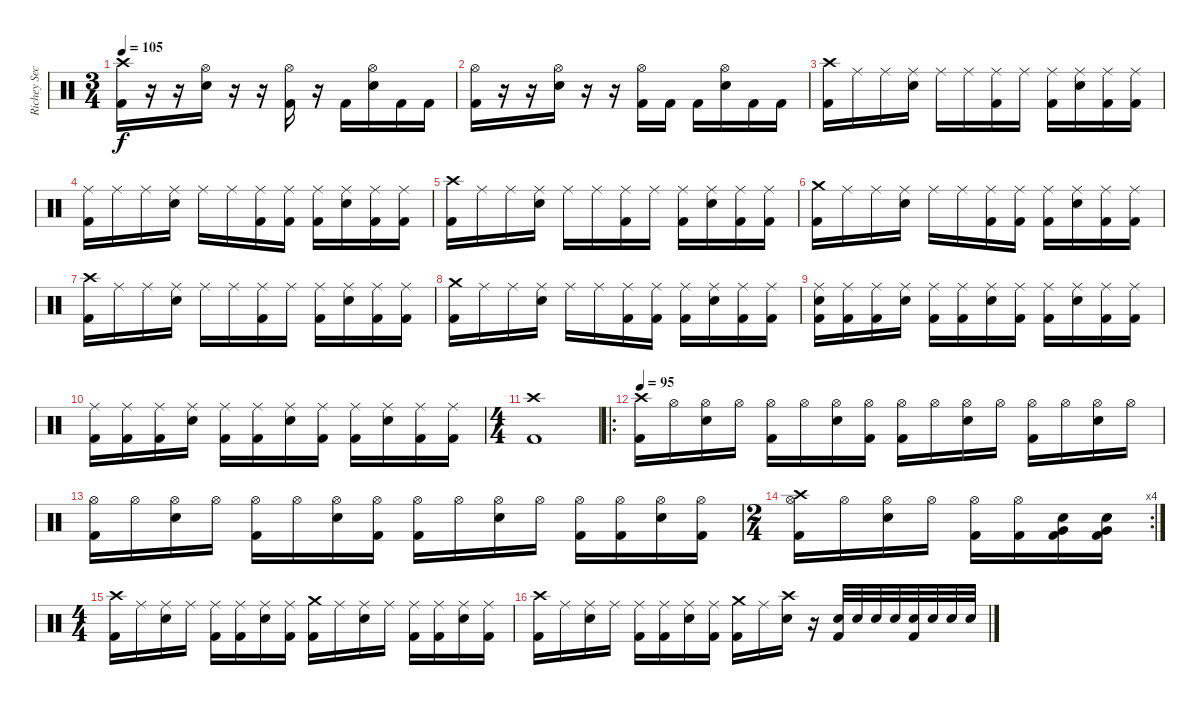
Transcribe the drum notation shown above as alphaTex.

\track ("Richey Secchiri" "Richey Sec") {instrument percussion}
\staff {score}
\articulation defaults
\ts (3 4)
\tempo 105
\clef neutral
\ks c
("Crash high (hit)" "Kick (hit) 2").16{dy f} r.16 r.16 ("Hi-Hat (open)" "Snare (hit) 2").16 r.16 r.16 ("Hi-Hat (open)" "Kick (hit) 2").16 r.16 "Kick (hit) 2".16 ("Hi-Hat (open)" "Snare (hit) 2").16 "Kick (hit) 2".16 "Kick (hit) 2".16 |
("Hi-Hat (open)" "Kick (hit) 2").16 r.16 r.16 ("Hi-Hat (open)" "Snare (hit) 2").16 r.16 r.16 ("Hi-Hat (open)" "Kick (hit) 2").16 "Kick (hit) 2".16 "Kick (hit) 2".16 ("Hi-Hat (open)" "Snare (hit) 2").16 "Kick (hit) 2".16 "Kick (hit) 2".16 |
("Crash high (hit)" "Kick (hit) 2").16 "Ride (middle)".16 "Ride (middle)".16 ("Ride (middle)" "Snare (hit) 2").16 "Ride (middle)".16 "Ride (middle)".16 ("Ride (middle)" "Kick (hit) 2").16 "Ride (middle)".16 ("Ride (middle)" "Kick (hit) 2").16 ("Ride (middle)" "Snare (hit) 2").16 ("Ride (middle)" "Kick (hit) 2").16 ("Ride (middle)" "Kick (hit) 2").16 |
("Ride (middle)" "Kick (hit) 2").16 "Ride (middle)".16 "Ride (middle)".16 ("Ride (middle)" "Snare (hit) 2").16 "Ride (middle)".16 "Ride (middle)".16 ("Ride (middle)" "Kick (hit) 2").16 ("Ride (middle)" "Kick (hit) 2").16 ("Ride (middle)" "Kick (hit) 2").16 ("Ride (middle)" "Snare (hit) 2").16 ("Ride (middle)" "Kick (hit) 2").16 ("Ride (middle)" "Kick (hit) 2").16 |
("Crash high (hit)" "Kick (hit) 2").16 "Ride (middle)".16 "Ride (middle)".16 ("Ride (middle)" "Snare (hit) 2").16 "Ride (middle)".16 "Ride (middle)".16 ("Ride (middle)" "Kick (hit) 2").16 "Ride (middle)".16 ("Ride (middle)" "Kick (hit) 2").16 ("Ride (middle)" "Snare (hit) 2").16 ("Ride (middle)" "Kick (hit) 2").16 ("Ride (middle)" "Kick (hit) 2").16 |
("Crash medium (hit)" "Kick (hit) 2").16 "Ride (middle)".16 "Ride (middle)".16 ("Ride (middle)" "Snare (hit) 2").16 "Ride (middle)".16 "Ride (middle)".16 ("Ride (middle)" "Kick (hit) 2").16 ("Ride (middle)" "Kick (hit) 2").16 ("Ride (middle)" "Kick (hit) 2").16 ("Ride (middle)" "Snare (hit) 2").16 ("Ride (middle)" "Kick (hit) 2").16 ("Ride (middle)" "Kick (hit) 2").16 |
("Crash high (hit)" "Kick (hit) 2").16 "Ride (middle)".16 "Ride (middle)".16 ("Ride (middle)" "Snare (hit) 2").16 "Ride (middle)".16 "Ride (middle)".16 ("Ride (middle)" "Kick (hit) 2").16 "Ride (middle)".16 ("Ride (middle)" "Kick (hit) 2").16 ("Ride (middle)" "Snare (hit) 2").16 ("Ride (middle)" "Kick (hit) 2").16 ("Ride (middle)" "Kick (hit) 2").16 |
("Crash medium (hit)" "Kick (hit) 2").16 "Ride (middle)".16 "Ride (middle)".16 ("Ride (middle)" "Snare (hit) 2").16 "Ride (middle)".16 "Ride (middle)".16 ("Ride (middle)" "Kick (hit) 2").16 ("Ride (middle)" "Kick (hit) 2").16 ("Ride (middle)" "Kick (hit) 2").16 ("Ride (middle)" "Snare (hit) 2").16 ("Ride (middle)" "Kick (hit) 2").16 ("Ride (middle)" "Kick (hit) 2").16 |
("Ride (middle)" "Snare (hit) 2" "Kick (hit) 2").16 ("Ride (middle)" "Kick (hit) 2").16 ("Ride (middle)" "Kick (hit) 2").16 ("Ride (middle)" "Snare (hit) 2").16 ("Ride (middle)" "Kick (hit) 2").16 ("Ride (middle)" "Kick (hit) 2").16 ("Ride (middle)" "Snare (hit) 2").16 ("Ride (middle)" "Kick (hit) 2").16 ("Ride (middle)" "Kick (hit) 2").16 ("Ride (middle)" "Snare (hit) 2").16 ("Ride (middle)" "Kick (hit) 2").16 ("Ride (middle)" "Kick (hit) 2").16 |
("Ride (middle)" "Kick (hit) 2").16 ("Ride (middle)" "Kick (hit) 2").16 ("Ride (middle)" "Kick (hit) 2").16 ("Ride (middle)" "Snare (hit) 2").16 ("Ride (middle)" "Kick (hit) 2").16 ("Ride (middle)" "Kick (hit) 2").16 ("Ride (middle)" "Snare (hit) 2").16 ("Ride (middle)" "Kick (hit) 2").16 ("Ride (middle)" "Kick (hit) 2").16 ("Ride (middle)" "Snare (hit) 2").16 ("Ride (middle)" "Kick (hit) 2").16 ("Ride (middle)" "Kick (hit) 2").16 |
\ts (4 4)
("Crash high (hit)" "Kick (hit) 2").1 |
\ro
\tempo 95
("Crash high (hit)" "Kick (hit) 2").16 "Hi-Hat (open)".16 ("Hi-Hat (open)" "Snare (hit) 2").16 "Hi-Hat (open)".16 ("Hi-Hat (open)" "Kick (hit) 2").16 "Hi-Hat (open)".16 ("Hi-Hat (open)" "Snare (hit) 2").16 ("Hi-Hat (open)" "Kick (hit) 2").16 ("Hi-Hat (open)" "Kick (hit) 2").16 "Hi-Hat (open)".16 ("Hi-Hat (open)" "Snare (hit) 2").16 "Hi-Hat (open)".16 ("Hi-Hat (open)" "Kick (hit) 2").16 "Hi-Hat (open)".16 ("Hi-Hat (open)" "Snare (hit) 2").16 "Hi-Hat (open)".16 |
("Hi-Hat (open)" "Kick (hit) 2").16 "Hi-Hat (open)".16 ("Hi-Hat (open)" "Snare (hit) 2").16 "Hi-Hat (open)".16 ("Hi-Hat (open)" "Kick (hit) 2").16 "Hi-Hat (open)".16 ("Hi-Hat (open)" "Snare (hit) 2").16 ("Hi-Hat (open)" "Kick (hit) 2").16 ("Hi-Hat (open)" "Kick (hit) 2").16 "Hi-Hat (open)".16 ("Hi-Hat (open)" "Snare (hit) 2").16 "Hi-Hat (open)".16 ("Hi-Hat (open)" "Kick (hit) 2").16 ("Hi-Hat (open)" "Kick (hit) 2").16 ("Hi-Hat (open)" "Snare (hit) 2").16 ("Hi-Hat (open)" "Kick (hit) 2").16 |
\rc 4
\ts (2 4)
("Crash high (hit)" "Hi-Hat (open)" "Kick (hit) 2").16 "Hi-Hat (open)".16 ("Hi-Hat (open)" "Snare (hit) 2").16 "Hi-Hat (open)".16 ("Hi-Hat (open)" "Kick (hit) 2").16 ("Hi-Hat (open)" "Kick (hit) 2").16 ("Snare (hit) 2" "Very Low Tom (hit)" "Kick (hit) 2").16 ("Snare (hit) 2" "Very Low Tom (hit)" "Kick (hit) 2").16 |
\ts (4 4)
("Crash high (hit)" "Kick (hit) 2").16 "Ride (middle)".16 ("Ride (middle)" "Snare (hit) 2").16 "Ride (middle)".16 ("Ride (middle)" "Kick (hit) 2").16 ("Ride (middle)" "Kick (hit) 2").16 ("Ride (middle)" "Snare (hit) 2").16 ("Ride (middle)" "Kick (hit) 2").16 ("Crash medium (hit)" "Kick (hit) 2").16 "Ride (middle)".16 ("Ride (middle)" "Snare (hit) 2").16 "Ride (middle)".16 ("Ride (middle)" "Kick (hit) 2").16 ("Ride (middle)" "Kick (hit) 2").16 ("Ride (middle)" "Snare (hit) 2").16 ("Ride (middle)" "Kick (hit) 2").16 |
("Crash high (hit)" "Kick (hit) 2").16 "Ride (middle)".16 ("Ride (middle)" "Snare (hit) 2").16 "Ride (middle)".16 ("Ride (middle)" "Kick (hit) 2").16 ("Ride (middle)" "Kick (hit) 2").16 ("Ride (middle)" "Snare (hit) 2").16 ("Ride (middle)" "Kick (hit) 2").16 ("Crash medium (hit)" "Kick (hit) 2").16 "Ride (middle)".16 ("Crash high (hit)" "Snare (hit) 2").16 r.16 ("Snare (hit) 2" "Kick (hit) 2").32 "Snare (hit) 2".32 "Snare (hit) 2".32 "Snare (hit) 2".32 ("Snare (hit) 2" "Kick (hit) 2").32 "Snare (hit) 2".32 "Snare (hit) 2".32 "Snare (hit) 2".32
